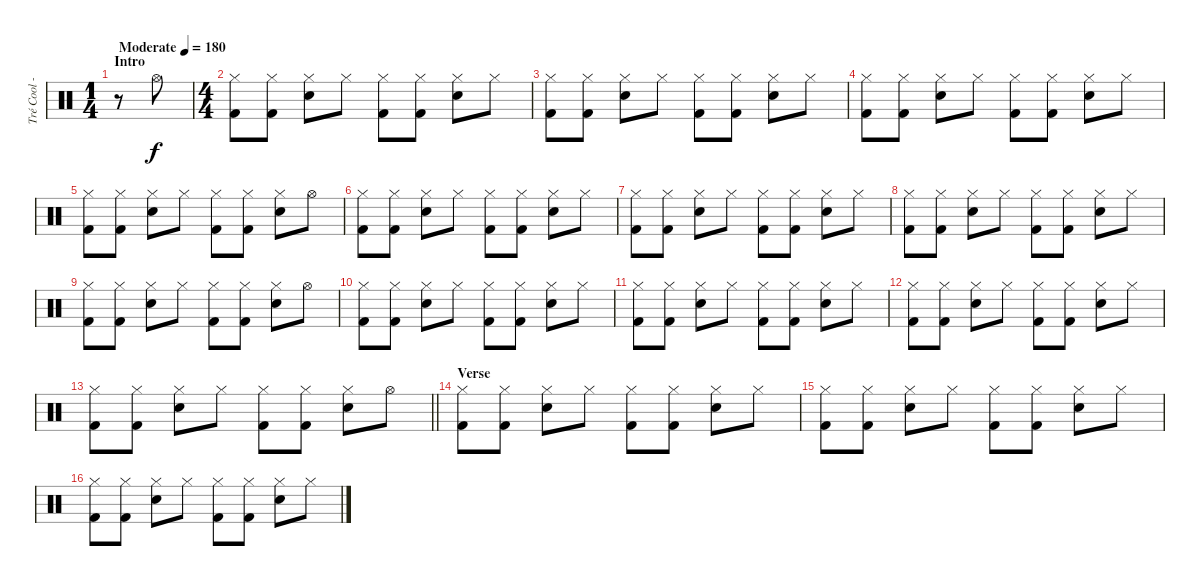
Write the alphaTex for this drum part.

\track ("Tré Cool - Drums" "Tré Cool -") {instrument percussion}
\staff {score}
\articulation defaults
\ts (1 4)
\section ("" "Intro")
\tempo (180 "Moderate")
\clef neutral
\ks c
r.8{dy f volume 9 balance 3} "Hi-Hat (open)".8 |
\ts (4 4)
("Hi-Hat (closed)" "Kick (hit) 2").8 ("Hi-Hat (closed)" "Kick (hit) 2").8 ("Hi-Hat (closed)" "Electric Snare (hit)").8 "Hi-Hat (closed)".8 ("Hi-Hat (closed)" "Kick (hit) 2").8 ("Hi-Hat (closed)" "Kick (hit) 2").8 ("Hi-Hat (closed)" "Electric Snare (hit)").8 "Hi-Hat (closed)".8 |
("Hi-Hat (closed)" "Kick (hit) 2").8 ("Hi-Hat (closed)" "Kick (hit) 2").8 ("Hi-Hat (closed)" "Electric Snare (hit)").8 "Hi-Hat (closed)".8 ("Hi-Hat (closed)" "Kick (hit) 2").8 ("Hi-Hat (closed)" "Kick (hit) 2").8 ("Hi-Hat (closed)" "Electric Snare (hit)").8 "Hi-Hat (closed)".8 |
("Hi-Hat (closed)" "Kick (hit) 2").8 ("Hi-Hat (closed)" "Kick (hit) 2").8 ("Hi-Hat (closed)" "Electric Snare (hit)").8 "Hi-Hat (closed)".8 ("Hi-Hat (closed)" "Kick (hit) 2").8 ("Hi-Hat (closed)" "Kick (hit) 2").8 ("Hi-Hat (closed)" "Electric Snare (hit)").8 "Hi-Hat (closed)".8 |
("Hi-Hat (closed)" "Kick (hit) 2").8 ("Hi-Hat (closed)" "Kick (hit) 2").8 ("Hi-Hat (closed)" "Electric Snare (hit)").8 "Hi-Hat (closed)".8 ("Hi-Hat (closed)" "Kick (hit) 2").8 ("Hi-Hat (closed)" "Kick (hit) 2").8 ("Hi-Hat (closed)" "Electric Snare (hit)").8 "Hi-Hat (open)".8 |
("Hi-Hat (closed)" "Kick (hit) 2").8 ("Hi-Hat (closed)" "Kick (hit) 2").8 ("Hi-Hat (closed)" "Electric Snare (hit)").8 "Hi-Hat (closed)".8 ("Hi-Hat (closed)" "Kick (hit) 2").8 ("Hi-Hat (closed)" "Kick (hit) 2").8 ("Hi-Hat (closed)" "Electric Snare (hit)").8 "Hi-Hat (closed)".8 |
("Hi-Hat (closed)" "Kick (hit) 2").8 ("Hi-Hat (closed)" "Kick (hit) 2").8 ("Hi-Hat (closed)" "Electric Snare (hit)").8 "Hi-Hat (closed)".8 ("Hi-Hat (closed)" "Kick (hit) 2").8 ("Hi-Hat (closed)" "Kick (hit) 2").8 ("Hi-Hat (closed)" "Electric Snare (hit)").8 "Hi-Hat (closed)".8 |
("Hi-Hat (closed)" "Kick (hit) 2").8 ("Hi-Hat (closed)" "Kick (hit) 2").8 ("Hi-Hat (closed)" "Electric Snare (hit)").8 "Hi-Hat (closed)".8 ("Hi-Hat (closed)" "Kick (hit) 2").8 ("Hi-Hat (closed)" "Kick (hit) 2").8 ("Hi-Hat (closed)" "Electric Snare (hit)").8 "Hi-Hat (closed)".8 |
("Hi-Hat (closed)" "Kick (hit) 2").8 ("Hi-Hat (closed)" "Kick (hit) 2").8 ("Hi-Hat (closed)" "Electric Snare (hit)").8 "Hi-Hat (closed)".8 ("Hi-Hat (closed)" "Kick (hit) 2").8 ("Hi-Hat (closed)" "Kick (hit) 2").8 ("Hi-Hat (closed)" "Electric Snare (hit)").8 "Hi-Hat (open)".8 |
("Hi-Hat (closed)" "Kick (hit) 2").8 ("Hi-Hat (closed)" "Kick (hit) 2").8 ("Hi-Hat (closed)" "Electric Snare (hit)").8 "Hi-Hat (closed)".8 ("Hi-Hat (closed)" "Kick (hit) 2").8 ("Hi-Hat (closed)" "Kick (hit) 2").8 ("Hi-Hat (closed)" "Electric Snare (hit)").8 "Hi-Hat (closed)".8 |
("Hi-Hat (closed)" "Kick (hit) 2").8 ("Hi-Hat (closed)" "Kick (hit) 2").8 ("Hi-Hat (closed)" "Electric Snare (hit)").8 "Hi-Hat (closed)".8 ("Hi-Hat (closed)" "Kick (hit) 2").8 ("Hi-Hat (closed)" "Kick (hit) 2").8 ("Hi-Hat (closed)" "Electric Snare (hit)").8 "Hi-Hat (closed)".8 |
("Hi-Hat (closed)" "Kick (hit) 2").8 ("Hi-Hat (closed)" "Kick (hit) 2").8 ("Hi-Hat (closed)" "Electric Snare (hit)").8 "Hi-Hat (closed)".8 ("Hi-Hat (closed)" "Kick (hit) 2").8 ("Hi-Hat (closed)" "Kick (hit) 2").8 ("Hi-Hat (closed)" "Electric Snare (hit)").8 "Hi-Hat (closed)".8 |
\barLineRight lightlight
("Hi-Hat (closed)" "Kick (hit) 2").8 ("Hi-Hat (closed)" "Kick (hit) 2").8 ("Hi-Hat (closed)" "Electric Snare (hit)").8 "Hi-Hat (closed)".8 ("Hi-Hat (closed)" "Kick (hit) 2").8 ("Hi-Hat (closed)" "Kick (hit) 2").8 ("Hi-Hat (closed)" "Electric Snare (hit)").8 "Hi-Hat (open)".8 |
\section ("" "Verse")
("Hi-Hat (closed)" "Kick (hit) 2").8 ("Hi-Hat (closed)" "Kick (hit) 2").8 ("Hi-Hat (closed)" "Electric Snare (hit)").8 "Hi-Hat (closed)".8 ("Hi-Hat (closed)" "Kick (hit) 2").8 ("Hi-Hat (closed)" "Kick (hit) 2").8 ("Hi-Hat (closed)" "Electric Snare (hit)").8 "Hi-Hat (closed)".8 |
("Hi-Hat (closed)" "Kick (hit) 2").8 ("Hi-Hat (closed)" "Kick (hit) 2").8 ("Hi-Hat (closed)" "Electric Snare (hit)").8 "Hi-Hat (closed)".8 ("Hi-Hat (closed)" "Kick (hit) 2").8 ("Hi-Hat (closed)" "Kick (hit) 2").8 ("Hi-Hat (closed)" "Electric Snare (hit)").8 "Hi-Hat (closed)".8 |
("Hi-Hat (closed)" "Kick (hit) 2").8 ("Hi-Hat (closed)" "Kick (hit) 2").8 ("Hi-Hat (closed)" "Electric Snare (hit)").8 "Hi-Hat (closed)".8 ("Hi-Hat (closed)" "Kick (hit) 2").8 ("Hi-Hat (closed)" "Kick (hit) 2").8 ("Hi-Hat (closed)" "Electric Snare (hit)").8 "Hi-Hat (closed)".8
